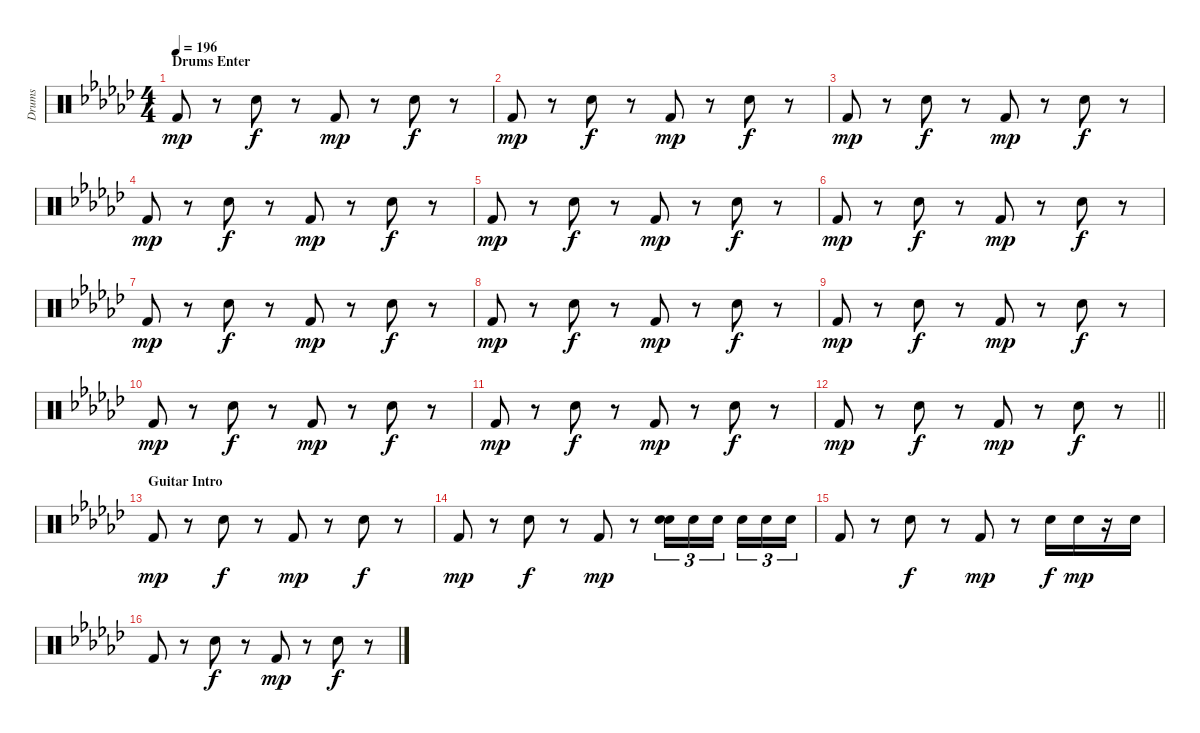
\track ("Drums" "Drums") {instrument percussion}
\staff {score}
\articulation defaults
\ts (4 4)
\section ("" "Drums Enter")
\tempo 196
\clef neutral
\ks gb "Kick (hit) 2".8{dy mp}
r.8 "Snare (hit) 2".8{dy f} r.8 "Kick (hit) 2".8{dy mp} r.8 "Snare (hit) 2".8{dy f} r.8 |
"Kick (hit) 2".8{dy mp} r.8 "Snare (hit) 2".8{dy f} r.8 "Kick (hit) 2".8{dy mp} r.8 "Snare (hit) 2".8{dy f} r.8 |
"Kick (hit) 2".8{dy mp} r.8 "Snare (hit) 2".8{dy f} r.8 "Kick (hit) 2".8{dy mp} r.8 "Snare (hit) 2".8{dy f} r.8 |
"Kick (hit) 2".8{dy mp} r.8 "Snare (hit) 2".8{dy f} r.8 "Kick (hit) 2".8{dy mp} r.8 "Snare (hit) 2".8{dy f} r.8 |
"Kick (hit) 2".8{dy mp} r.8 "Snare (hit) 2".8{dy f} r.8 "Kick (hit) 2".8{dy mp} r.8 "Snare (hit) 2".8{dy f} r.8 |
"Kick (hit) 2".8{dy mp} r.8 "Snare (hit) 2".8{dy f} r.8 "Kick (hit) 2".8{dy mp} r.8 "Snare (hit) 2".8{dy f} r.8 |
"Kick (hit) 2".8{dy mp} r.8 "Snare (hit) 2".8{dy f} r.8 "Kick (hit) 2".8{dy mp} r.8 "Snare (hit) 2".8{dy f} r.8 |
"Kick (hit) 2".8{dy mp} r.8 "Snare (hit) 2".8{dy f} r.8 "Kick (hit) 2".8{dy mp} r.8 "Snare (hit) 2".8{dy f} r.8 |
"Kick (hit) 2".8{dy mp} r.8 "Snare (hit) 2".8{dy f} r.8 "Kick (hit) 2".8{dy mp} r.8 "Snare (hit) 2".8{dy f} r.8 |
"Kick (hit) 2".8{dy mp} r.8 "Snare (hit) 2".8{dy f} r.8 "Kick (hit) 2".8{dy mp} r.8 "Snare (hit) 2".8{dy f} r.8 |
"Kick (hit) 2".8{dy mp} r.8 "Snare (hit) 2".8{dy f} r.8 "Kick (hit) 2".8{dy mp} r.8 "Snare (hit) 2".8{dy f} r.8 |
\barLineRight lightlight "Kick (hit) 2".8{dy mp}
r.8 "Snare (hit) 2".8{dy f} r.8 "Kick (hit) 2".8{dy mp} r.8 "Snare (hit) 2".8{dy f} r.8 |
\section ("" "Guitar Intro")
"Kick (hit) 2".8{dy mp} r.8 "Snare (hit) 2".8{dy f} r.8 "Kick (hit) 2".8{dy mp} r.8 "Snare (hit) 2".8{dy f} r.8 |
"Kick (hit) 2".8{dy mp} r.8 "Snare (hit) 2".8{dy f} r.8 "Kick (hit) 2".8{dy mp} r.8 ("Hand Clap (hit)" "Snare (hit) 2").16{tu (3 2)} "Hand Clap (hit)".16{tu (3 2)} "Hand Clap (hit)".16{tu (3 2) beam splitsecondary} "Hand Clap (hit)".16{tu (3 2)} "Hand Clap (hit)".16{tu (3 2)} "Hand Clap (hit)".16{tu (3 2)} |
"Kick (hit) 2".8 r.8 "Snare (hit) 2".8{dy f} r.8 "Kick (hit) 2".8{dy mp} r.8 "Snare (hit) 2".16{dy f} "Hand Clap (hit)".16{dy mp} r.16 "Hand Clap (hit)".16 |
"Kick (hit) 2".8 r.8 "Snare (hit) 2".8{dy f} r.8 "Kick (hit) 2".8{dy mp} r.8 "Snare (hit) 2".8{dy f} r.8
